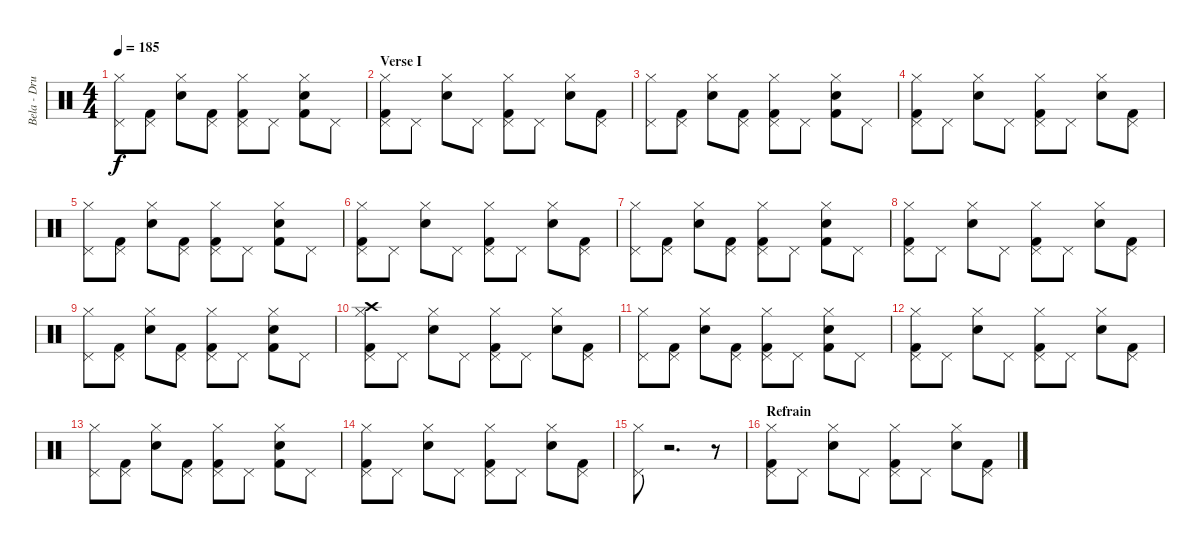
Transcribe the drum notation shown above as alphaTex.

\track ("Bela - Drums" "Bela - Dru") {instrument percussion}
\staff {score}
\articulation defaults
\ts (4 4)
\tempo 185
\clef neutral
\ks c
("Hi-Hat (closed)" "Pedal Hi-Hat (hit)").8{dy f} ("Kick (hit) 2" "Pedal Hi-Hat (hit)").8 ("Hi-Hat (closed)" "Electric Snare (hit)").8 ("Kick (hit) 2" "Pedal Hi-Hat (hit)").8 ("Kick (hit) 2" "Hi-Hat (closed)" "Pedal Hi-Hat (hit)").8 "Pedal Hi-Hat (hit)".8 ("Hi-Hat (closed)" "Kick (hit) 2" "Electric Snare (hit)").8 "Pedal Hi-Hat (hit)".8 |
\section ("" "Verse I")
("Hi-Hat (closed)" "Pedal Hi-Hat (hit)" "Kick (hit) 2").8 "Pedal Hi-Hat (hit)".8 ("Hi-Hat (closed)" "Electric Snare (hit)").8 "Pedal Hi-Hat (hit)".8 ("Hi-Hat (closed)" "Kick (hit) 2" "Pedal Hi-Hat (hit)").8 "Pedal Hi-Hat (hit)".8 ("Hi-Hat (closed)" "Electric Snare (hit)").8 ("Pedal Hi-Hat (hit)" "Kick (hit) 2").8 |
("Hi-Hat (closed)" "Pedal Hi-Hat (hit)").8 ("Kick (hit) 2" "Pedal Hi-Hat (hit)").8 ("Hi-Hat (closed)" "Electric Snare (hit)").8 ("Kick (hit) 2" "Pedal Hi-Hat (hit)").8 ("Kick (hit) 2" "Hi-Hat (closed)" "Pedal Hi-Hat (hit)").8 "Pedal Hi-Hat (hit)".8 ("Hi-Hat (closed)" "Kick (hit) 2" "Electric Snare (hit)").8 "Pedal Hi-Hat (hit)".8 |
("Hi-Hat (closed)" "Pedal Hi-Hat (hit)" "Kick (hit) 2").8 "Pedal Hi-Hat (hit)".8 ("Hi-Hat (closed)" "Electric Snare (hit)").8 "Pedal Hi-Hat (hit)".8 ("Hi-Hat (closed)" "Kick (hit) 2" "Pedal Hi-Hat (hit)").8 "Pedal Hi-Hat (hit)".8 ("Hi-Hat (closed)" "Electric Snare (hit)").8 ("Pedal Hi-Hat (hit)" "Kick (hit) 2").8 |
("Hi-Hat (closed)" "Pedal Hi-Hat (hit)").8 ("Kick (hit) 2" "Pedal Hi-Hat (hit)").8 ("Hi-Hat (closed)" "Electric Snare (hit)").8 ("Kick (hit) 2" "Pedal Hi-Hat (hit)").8 ("Kick (hit) 2" "Hi-Hat (closed)" "Pedal Hi-Hat (hit)").8 "Pedal Hi-Hat (hit)".8 ("Hi-Hat (closed)" "Kick (hit) 2" "Electric Snare (hit)").8 "Pedal Hi-Hat (hit)".8 |
("Hi-Hat (closed)" "Pedal Hi-Hat (hit)" "Kick (hit) 2").8 "Pedal Hi-Hat (hit)".8 ("Hi-Hat (closed)" "Electric Snare (hit)").8 "Pedal Hi-Hat (hit)".8 ("Hi-Hat (closed)" "Kick (hit) 2" "Pedal Hi-Hat (hit)").8 "Pedal Hi-Hat (hit)".8 ("Hi-Hat (closed)" "Electric Snare (hit)").8 ("Pedal Hi-Hat (hit)" "Kick (hit) 2").8 |
("Hi-Hat (closed)" "Pedal Hi-Hat (hit)").8 ("Kick (hit) 2" "Pedal Hi-Hat (hit)").8 ("Hi-Hat (closed)" "Electric Snare (hit)").8 ("Kick (hit) 2" "Pedal Hi-Hat (hit)").8 ("Kick (hit) 2" "Hi-Hat (closed)" "Pedal Hi-Hat (hit)").8 "Pedal Hi-Hat (hit)".8 ("Hi-Hat (closed)" "Kick (hit) 2" "Electric Snare (hit)").8 "Pedal Hi-Hat (hit)".8 |
("Hi-Hat (closed)" "Pedal Hi-Hat (hit)" "Kick (hit) 2").8 "Pedal Hi-Hat (hit)".8 ("Hi-Hat (closed)" "Electric Snare (hit)").8 "Pedal Hi-Hat (hit)".8 ("Hi-Hat (closed)" "Kick (hit) 2" "Pedal Hi-Hat (hit)").8 "Pedal Hi-Hat (hit)".8 ("Hi-Hat (closed)" "Electric Snare (hit)").8 ("Pedal Hi-Hat (hit)" "Kick (hit) 2").8 |
("Hi-Hat (closed)" "Pedal Hi-Hat (hit)").8 ("Kick (hit) 2" "Pedal Hi-Hat (hit)").8 ("Hi-Hat (closed)" "Electric Snare (hit)").8 ("Kick (hit) 2" "Pedal Hi-Hat (hit)").8 ("Kick (hit) 2" "Hi-Hat (closed)" "Pedal Hi-Hat (hit)").8 "Pedal Hi-Hat (hit)".8 ("Hi-Hat (closed)" "Kick (hit) 2" "Electric Snare (hit)").8 "Pedal Hi-Hat (hit)".8 |
("Crash high (hit)" "Hi-Hat (closed)" "Pedal Hi-Hat (hit)" "Kick (hit) 2").8 "Pedal Hi-Hat (hit)".8 ("Hi-Hat (closed)" "Electric Snare (hit)").8 "Pedal Hi-Hat (hit)".8 ("Hi-Hat (closed)" "Kick (hit) 2" "Pedal Hi-Hat (hit)").8 "Pedal Hi-Hat (hit)".8 ("Hi-Hat (closed)" "Electric Snare (hit)").8 ("Pedal Hi-Hat (hit)" "Kick (hit) 2").8 |
("Hi-Hat (closed)" "Pedal Hi-Hat (hit)").8 ("Kick (hit) 2" "Pedal Hi-Hat (hit)").8 ("Hi-Hat (closed)" "Electric Snare (hit)").8 ("Kick (hit) 2" "Pedal Hi-Hat (hit)").8 ("Kick (hit) 2" "Hi-Hat (closed)" "Pedal Hi-Hat (hit)").8 "Pedal Hi-Hat (hit)".8 ("Hi-Hat (closed)" "Kick (hit) 2" "Electric Snare (hit)").8 "Pedal Hi-Hat (hit)".8 |
("Hi-Hat (closed)" "Pedal Hi-Hat (hit)" "Kick (hit) 2").8 "Pedal Hi-Hat (hit)".8 ("Hi-Hat (closed)" "Electric Snare (hit)").8 "Pedal Hi-Hat (hit)".8 ("Hi-Hat (closed)" "Kick (hit) 2" "Pedal Hi-Hat (hit)").8 "Pedal Hi-Hat (hit)".8 ("Hi-Hat (closed)" "Electric Snare (hit)").8 ("Pedal Hi-Hat (hit)" "Kick (hit) 2").8 |
("Hi-Hat (closed)" "Pedal Hi-Hat (hit)").8 ("Kick (hit) 2" "Pedal Hi-Hat (hit)").8 ("Hi-Hat (closed)" "Electric Snare (hit)").8 ("Kick (hit) 2" "Pedal Hi-Hat (hit)").8 ("Kick (hit) 2" "Hi-Hat (closed)" "Pedal Hi-Hat (hit)").8 "Pedal Hi-Hat (hit)".8 ("Hi-Hat (closed)" "Kick (hit) 2" "Electric Snare (hit)").8 "Pedal Hi-Hat (hit)".8 |
("Hi-Hat (closed)" "Pedal Hi-Hat (hit)" "Kick (hit) 2").8 "Pedal Hi-Hat (hit)".8 ("Hi-Hat (closed)" "Electric Snare (hit)").8 "Pedal Hi-Hat (hit)".8 ("Hi-Hat (closed)" "Kick (hit) 2" "Pedal Hi-Hat (hit)").8 "Pedal Hi-Hat (hit)".8 ("Hi-Hat (closed)" "Electric Snare (hit)").8 ("Pedal Hi-Hat (hit)" "Kick (hit) 2").8 |
("Hi-Hat (closed)" "Pedal Hi-Hat (hit)").8 r.2{d} r.8 |
\section ("" "Refrain")
("Hi-Hat (closed)" "Pedal Hi-Hat (hit)" "Kick (hit) 2").8 "Pedal Hi-Hat (hit)".8 ("Hi-Hat (closed)" "Electric Snare (hit)").8 "Pedal Hi-Hat (hit)".8 ("Hi-Hat (closed)" "Kick (hit) 2" "Pedal Hi-Hat (hit)").8 "Pedal Hi-Hat (hit)".8 ("Hi-Hat (closed)" "Electric Snare (hit)").8 ("Pedal Hi-Hat (hit)" "Kick (hit) 2").8
